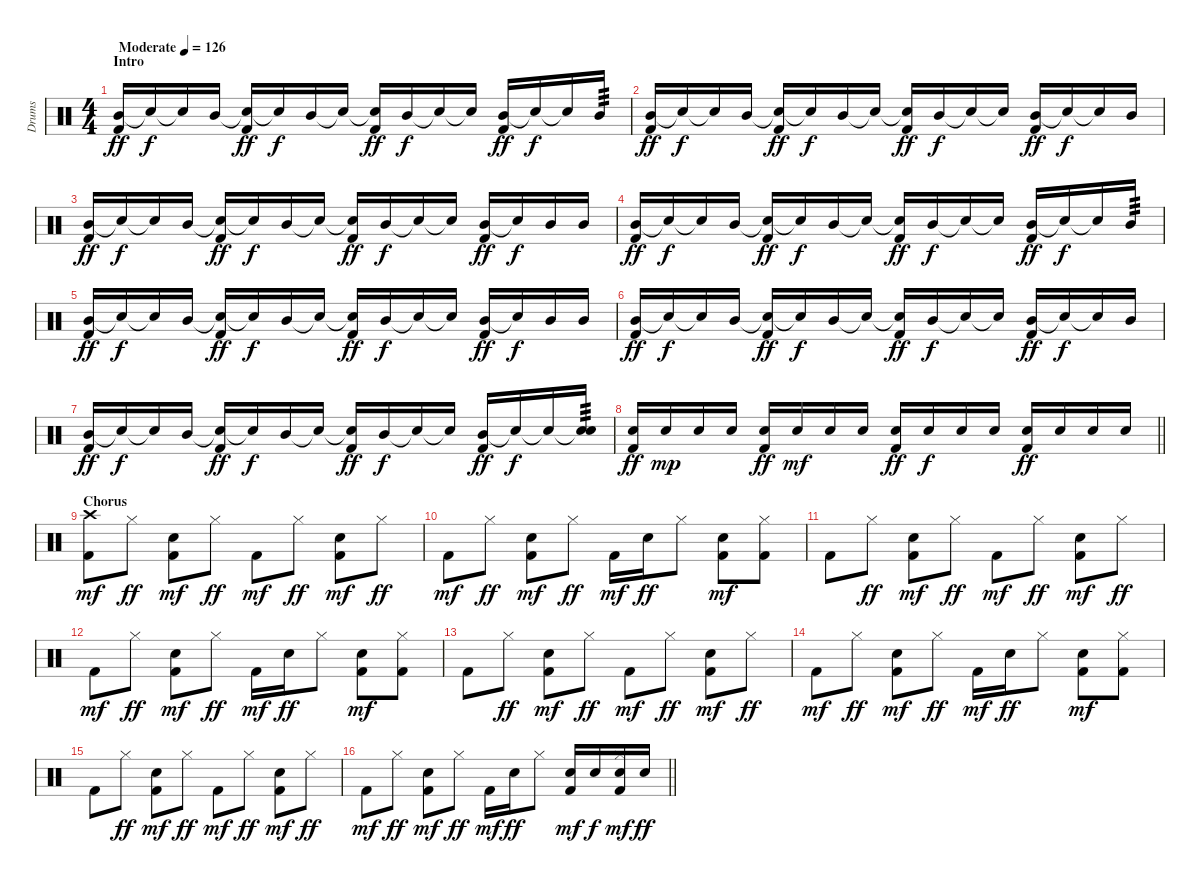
\track ("Drums" "Drums") {instrument percussion}
\staff {score}
\articulation defaults
\ts (4 4)
\section ("" "Intro")
\tempo (126 "Moderate")
\clef neutral
\ks c
("Mid Tom (hit)" "Kick (hit) 2").16{dy ff} "Snare (hit)"{t}.16{dy f} "Snare (hit)"{t}.16 "Mid Tom (hit)".16 ("Snare (hit)"{t} "Kick (hit) 2").16{dy ff} "Snare (hit)"{t}.16{dy f} "Mid Tom (hit)".16 "Snare (hit)"{t}.16 ("Snare (hit)"{t} "Kick (hit) 2").16{dy ff} "Mid Tom (hit)".16{dy f} "Snare (hit)"{t}.16 "Snare (hit)"{t}.16 ("Mid Tom (hit)" "Kick (hit) 2").16{dy ff} "Snare (hit)"{t}.16{dy f} "Snare (hit)"{t}.16 "Mid Tom (hit)".16{tp 3} |
("Mid Tom (hit)" "Kick (hit) 2").16{dy ff} "Snare (hit)"{t}.16{dy f} "Snare (hit)"{t}.16 "Mid Tom (hit)".16 ("Snare (hit)"{t} "Kick (hit) 2").16{dy ff} "Snare (hit)"{t}.16{dy f} "Mid Tom (hit)".16 "Snare (hit)"{t}.16 ("Snare (hit)"{t} "Kick (hit) 2").16{dy ff} "Mid Tom (hit)".16{dy f} "Snare (hit)"{t}.16 "Snare (hit)"{t}.16 ("Mid Tom (hit)" "Kick (hit) 2").16{dy ff} "Snare (hit)"{t}.16{dy f} "Snare (hit)"{t}.16 "Mid Tom (hit)".16 |
("Mid Tom (hit)" "Kick (hit) 2").16{dy ff} "Snare (hit)"{t}.16{dy f} "Snare (hit)"{t}.16 "Mid Tom (hit)".16 ("Snare (hit)"{t} "Kick (hit) 2").16{dy ff} "Snare (hit)"{t}.16{dy f} "Mid Tom (hit)".16 "Snare (hit)"{t}.16 ("Snare (hit)"{t} "Kick (hit) 2").16{dy ff} "Mid Tom (hit)".16{dy f} "Snare (hit)"{t}.16 "Snare (hit)"{t}.16 ("Mid Tom (hit)" "Kick (hit) 2").16{dy ff} "Snare (hit)"{t}.16{dy f} "Mid Tom (hit)".16 "Mid Tom (hit)".16 |
("Mid Tom (hit)" "Kick (hit) 2").16{dy ff} "Snare (hit)"{t}.16{dy f} "Snare (hit)"{t}.16 "Mid Tom (hit)".16 ("Snare (hit)"{t} "Kick (hit) 2").16{dy ff} "Snare (hit)"{t}.16{dy f} "Mid Tom (hit)".16 "Snare (hit)"{t}.16 ("Snare (hit)"{t} "Kick (hit) 2").16{dy ff} "Mid Tom (hit)".16{dy f} "Snare (hit)"{t}.16 "Snare (hit)"{t}.16 ("Mid Tom (hit)" "Kick (hit) 2").16{dy ff} "Snare (hit)"{t}.16{dy f} "Snare (hit)"{t}.16 "Mid Tom (hit)".16{tp 3} |
("Mid Tom (hit)" "Kick (hit) 2").16{dy ff} "Snare (hit)"{t}.16{dy f} "Snare (hit)"{t}.16 "Mid Tom (hit)".16 ("Snare (hit)"{t} "Kick (hit) 2").16{dy ff} "Snare (hit)"{t}.16{dy f} "Mid Tom (hit)".16 "Snare (hit)"{t}.16 ("Snare (hit)"{t} "Kick (hit) 2").16{dy ff} "Mid Tom (hit)".16{dy f} "Snare (hit)"{t}.16 "Snare (hit)"{t}.16 ("Mid Tom (hit)" "Kick (hit) 2").16{dy ff} "Snare (hit)"{t}.16{dy f} "Mid Tom (hit)".16 "Mid Tom (hit)".16 |
("Mid Tom (hit)" "Kick (hit) 2").16{dy ff} "Snare (hit)"{t}.16{dy f} "Snare (hit)"{t}.16 "Mid Tom (hit)".16 ("Snare (hit)"{t} "Kick (hit) 2").16{dy ff} "Snare (hit)"{t}.16{dy f} "Mid Tom (hit)".16 "Snare (hit)"{t}.16 ("Snare (hit)"{t} "Kick (hit) 2").16{dy ff} "Mid Tom (hit)".16{dy f} "Snare (hit)"{t}.16 "Snare (hit)"{t}.16 ("Mid Tom (hit)" "Kick (hit) 2").16{dy ff} "Snare (hit)"{t}.16{dy f} "Snare (hit)"{t}.16 "Mid Tom (hit)".16 |
("Mid Tom (hit)" "Kick (hit) 2").16{dy ff} "Snare (hit)"{t}.16{dy f} "Snare (hit)"{t}.16 "Mid Tom (hit)".16 ("Snare (hit)"{t} "Kick (hit) 2").16{dy ff} "Snare (hit)"{t}.16{dy f} "Mid Tom (hit)".16 "Snare (hit)"{t}.16 ("Snare (hit)"{t} "Kick (hit) 2").16{dy ff} "Mid Tom (hit)".16{dy f} "Snare (hit)"{t}.16 "Snare (hit)"{t}.16 ("Mid Tom (hit)" "Kick (hit) 2").16{dy ff} "Snare (hit)"{t}.16{dy f} "Snare (hit)"{t}.16 ("Snare (hit)"{t} "Snare (hit) 2").16{tp 3} |
\barLineRight lightlight
("Snare (hit) 2" "Kick (hit) 2").16{dy ff} "Snare (hit) 2".16{dy mp} "Snare (hit) 2".16 "Snare (hit) 2".16 ("Snare (hit) 2" "Kick (hit) 2").16{dy ff} "Snare (hit) 2".16{dy mf} "Snare (hit) 2".16 "Snare (hit) 2".16 ("Snare (hit) 2" "Kick (hit) 2").16{dy ff} "Snare (hit) 2".16{dy f} "Snare (hit) 2".16 "Snare (hit) 2".16 ("Snare (hit) 2" "Kick (hit) 2").16{dy ff} "Snare (hit) 2".16 "Snare (hit) 2".16 "Snare (hit) 2".16 |
\section ("" "Chorus")
("Crash high (hit)" "Kick (hit) 2").8{dy mf} "Hi-Hat (closed)".8{dy ff} ("Electric Snare (hit)" "Kick (hit) 2").8{dy mf} "Hi-Hat (closed)".8{dy ff} "Kick (hit) 2".8{dy mf} "Hi-Hat (closed)".8{dy ff} ("Electric Snare (hit)" "Kick (hit) 2").8{dy mf} "Hi-Hat (closed)".8{dy ff} |
"Kick (hit) 2".8{dy mf} "Hi-Hat (closed)".8{dy ff} ("Electric Snare (hit)" "Kick (hit) 2").8{dy mf} "Hi-Hat (closed)".8{dy ff} "Kick (hit) 2".16{dy mf} "Electric Snare (hit)".16{dy ff} "Hi-Hat (closed)".8 ("Electric Snare (hit)" "Kick (hit) 2").8{dy mf} ("Hi-Hat (closed)" "Kick (hit) 2").8 |
"Kick (hit) 2".8 "Hi-Hat (closed)".8{dy ff} ("Electric Snare (hit)" "Kick (hit) 2").8{dy mf} "Hi-Hat (closed)".8{dy ff} "Kick (hit) 2".8{dy mf} "Hi-Hat (closed)".8{dy ff} ("Electric Snare (hit)" "Kick (hit) 2").8{dy mf} "Hi-Hat (closed)".8{dy ff} |
"Kick (hit) 2".8{dy mf} "Hi-Hat (closed)".8{dy ff} ("Electric Snare (hit)" "Kick (hit) 2").8{dy mf} "Hi-Hat (closed)".8{dy ff} "Kick (hit) 2".16{dy mf} "Electric Snare (hit)".16{dy ff} "Hi-Hat (closed)".8 ("Electric Snare (hit)" "Kick (hit) 2").8{dy mf} ("Hi-Hat (closed)" "Kick (hit) 2").8 |
"Kick (hit) 2".8 "Hi-Hat (closed)".8{dy ff} ("Electric Snare (hit)" "Kick (hit) 2").8{dy mf} "Hi-Hat (closed)".8{dy ff} "Kick (hit) 2".8{dy mf} "Hi-Hat (closed)".8{dy ff} ("Electric Snare (hit)" "Kick (hit) 2").8{dy mf} "Hi-Hat (closed)".8{dy ff} |
"Kick (hit) 2".8{dy mf} "Hi-Hat (closed)".8{dy ff} ("Electric Snare (hit)" "Kick (hit) 2").8{dy mf} "Hi-Hat (closed)".8{dy ff} "Kick (hit) 2".16{dy mf} "Electric Snare (hit)".16{dy ff} "Hi-Hat (closed)".8 ("Electric Snare (hit)" "Kick (hit) 2").8{dy mf} ("Hi-Hat (closed)" "Kick (hit) 2").8 |
"Kick (hit) 2".8 "Hi-Hat (closed)".8{dy ff} ("Electric Snare (hit)" "Kick (hit) 2").8{dy mf} "Hi-Hat (closed)".8{dy ff} "Kick (hit) 2".8{dy mf} "Hi-Hat (closed)".8{dy ff} ("Electric Snare (hit)" "Kick (hit) 2").8{dy mf} "Hi-Hat (closed)".8{dy ff} |
\barLineRight lightlight "Kick (hit) 2".8{dy mf} "Hi-Hat (closed)".8{dy ff}
("Electric Snare (hit)" "Kick (hit) 2").8{dy mf} "Hi-Hat (closed)".8{dy ff} "Kick (hit) 2".16{dy mf} "Electric Snare (hit)".16{dy ff} "Hi-Hat (closed)".8 ("Electric Snare (hit)" "Kick (hit) 2").16{dy mf} "Electric Snare (hit)".16{dy f} ("Hi-Hat (closed)" "Electric Snare (hit)" "Kick (hit) 2").16{dy mf} "Electric Snare (hit)".16{dy ff}
